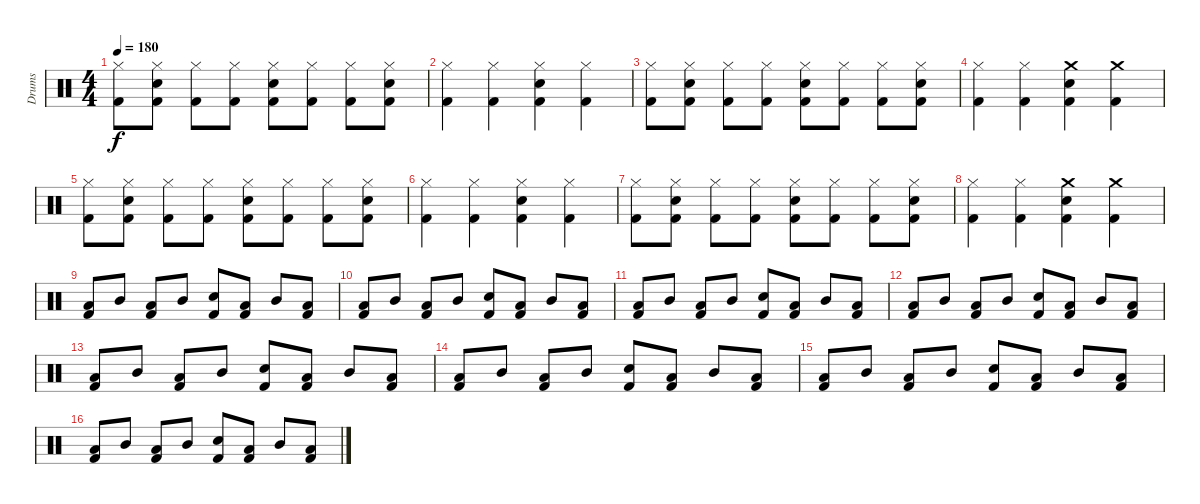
\track ("Drums" "Drums") {instrument percussion}
\staff {score}
\articulation defaults
\ts (4 4)
\tempo 180
\clef neutral
\ks c
("Hi-Hat (closed)" "Kick (hit) 2").8{dy f} ("Hi-Hat (closed)" "Snare (hit) 2" "Kick (hit) 2").8 ("Hi-Hat (closed)" "Kick (hit) 2").8 ("Hi-Hat (closed)" "Kick (hit) 2").8 ("Hi-Hat (closed)" "Snare (hit) 2" "Kick (hit) 2").8 ("Hi-Hat (closed)" "Kick (hit) 2").8 ("Hi-Hat (closed)" "Kick (hit) 2").8 ("Hi-Hat (closed)" "Snare (hit) 2" "Kick (hit) 2").8 |
("Hi-Hat (closed)" "Kick (hit) 2").4 ("Hi-Hat (closed)" "Kick (hit) 2").4 ("Hi-Hat (closed)" "Snare (hit) 2" "Kick (hit) 2").4 ("Hi-Hat (closed)" "Kick (hit) 2").4 |
("Hi-Hat (closed)" "Kick (hit) 2").8 ("Hi-Hat (closed)" "Snare (hit) 2" "Kick (hit) 2").8 ("Hi-Hat (closed)" "Kick (hit) 2").8 ("Hi-Hat (closed)" "Kick (hit) 2").8 ("Hi-Hat (closed)" "Snare (hit) 2" "Kick (hit) 2").8 ("Hi-Hat (closed)" "Kick (hit) 2").8 ("Hi-Hat (closed)" "Kick (hit) 2").8 ("Hi-Hat (closed)" "Snare (hit) 2" "Kick (hit) 2").8 |
("Hi-Hat (closed)" "Kick (hit) 2").4 ("Hi-Hat (closed)" "Kick (hit) 2").4 ("Crash medium (hit)" "Snare (hit) 2" "Kick (hit) 2").4 ("Crash medium (hit)" "Kick (hit) 2").4 |
("Hi-Hat (closed)" "Kick (hit) 2").8 ("Hi-Hat (closed)" "Snare (hit) 2" "Kick (hit) 2").8 ("Hi-Hat (closed)" "Kick (hit) 2").8 ("Hi-Hat (closed)" "Kick (hit) 2").8 ("Hi-Hat (closed)" "Snare (hit) 2" "Kick (hit) 2").8 ("Hi-Hat (closed)" "Kick (hit) 2").8 ("Hi-Hat (closed)" "Kick (hit) 2").8 ("Hi-Hat (closed)" "Snare (hit) 2" "Kick (hit) 2").8 |
("Hi-Hat (closed)" "Kick (hit) 2").4 ("Hi-Hat (closed)" "Kick (hit) 2").4 ("Hi-Hat (closed)" "Snare (hit) 2" "Kick (hit) 2").4 ("Hi-Hat (closed)" "Kick (hit) 2").4 |
("Hi-Hat (closed)" "Kick (hit) 2").8 ("Hi-Hat (closed)" "Snare (hit) 2" "Kick (hit) 2").8 ("Hi-Hat (closed)" "Kick (hit) 2").8 ("Hi-Hat (closed)" "Kick (hit) 2").8 ("Hi-Hat (closed)" "Snare (hit) 2" "Kick (hit) 2").8 ("Hi-Hat (closed)" "Kick (hit) 2").8 ("Hi-Hat (closed)" "Kick (hit) 2").8 ("Hi-Hat (closed)" "Snare (hit) 2" "Kick (hit) 2").8 |
("Hi-Hat (closed)" "Kick (hit) 2").4 ("Hi-Hat (closed)" "Kick (hit) 2").4 ("Crash medium (hit)" "Snare (hit) 2" "Kick (hit) 2").4 ("Crash medium (hit)" "Kick (hit) 2").4 |
("Low Tom (hit)" "Kick (hit) 2").8 "Mid Tom (hit)".8 ("Low Tom (hit)" "Kick (hit) 2").8 "Mid Tom (hit)".8 ("Snare (hit) 2" "Kick (hit) 2").8 ("Low Tom (hit)" "Kick (hit) 2").8 "Mid Tom (hit)".8 ("Low Tom (hit)" "Kick (hit) 2").8 |
("Low Tom (hit)" "Kick (hit) 2").8 "Mid Tom (hit)".8 ("Low Tom (hit)" "Kick (hit) 2").8 "Mid Tom (hit)".8 ("Snare (hit) 2" "Kick (hit) 2").8 ("Low Tom (hit)" "Kick (hit) 2").8 "Mid Tom (hit)".8 ("Low Tom (hit)" "Kick (hit) 2").8 |
("Low Tom (hit)" "Kick (hit) 2").8 "Mid Tom (hit)".8 ("Low Tom (hit)" "Kick (hit) 2").8 "Mid Tom (hit)".8 ("Snare (hit) 2" "Kick (hit) 2").8 ("Low Tom (hit)" "Kick (hit) 2").8 "Mid Tom (hit)".8 ("Low Tom (hit)" "Kick (hit) 2").8 |
("Low Tom (hit)" "Kick (hit) 2").8 "Mid Tom (hit)".8 ("Low Tom (hit)" "Kick (hit) 2").8 "Mid Tom (hit)".8 ("Snare (hit) 2" "Kick (hit) 2").8 ("Low Tom (hit)" "Kick (hit) 2").8 "Mid Tom (hit)".8 ("Low Tom (hit)" "Kick (hit) 2").8 |
("Low Tom (hit)" "Kick (hit) 2").8 "Mid Tom (hit)".8 ("Low Tom (hit)" "Kick (hit) 2").8 "Mid Tom (hit)".8 ("Snare (hit) 2" "Kick (hit) 2").8 ("Low Tom (hit)" "Kick (hit) 2").8 "Mid Tom (hit)".8 ("Low Tom (hit)" "Kick (hit) 2").8 |
("Low Tom (hit)" "Kick (hit) 2").8 "Mid Tom (hit)".8 ("Low Tom (hit)" "Kick (hit) 2").8 "Mid Tom (hit)".8 ("Snare (hit) 2" "Kick (hit) 2").8 ("Low Tom (hit)" "Kick (hit) 2").8 "Mid Tom (hit)".8 ("Low Tom (hit)" "Kick (hit) 2").8 |
("Low Tom (hit)" "Kick (hit) 2").8 "Mid Tom (hit)".8 ("Low Tom (hit)" "Kick (hit) 2").8 "Mid Tom (hit)".8 ("Snare (hit) 2" "Kick (hit) 2").8 ("Low Tom (hit)" "Kick (hit) 2").8 "Mid Tom (hit)".8 ("Low Tom (hit)" "Kick (hit) 2").8 |
("Low Tom (hit)" "Kick (hit) 2").8 "Mid Tom (hit)".8 ("Low Tom (hit)" "Kick (hit) 2").8 "Mid Tom (hit)".8 ("Snare (hit) 2" "Kick (hit) 2").8 ("Low Tom (hit)" "Kick (hit) 2").8 "Mid Tom (hit)".8 ("Low Tom (hit)" "Kick (hit) 2").8
